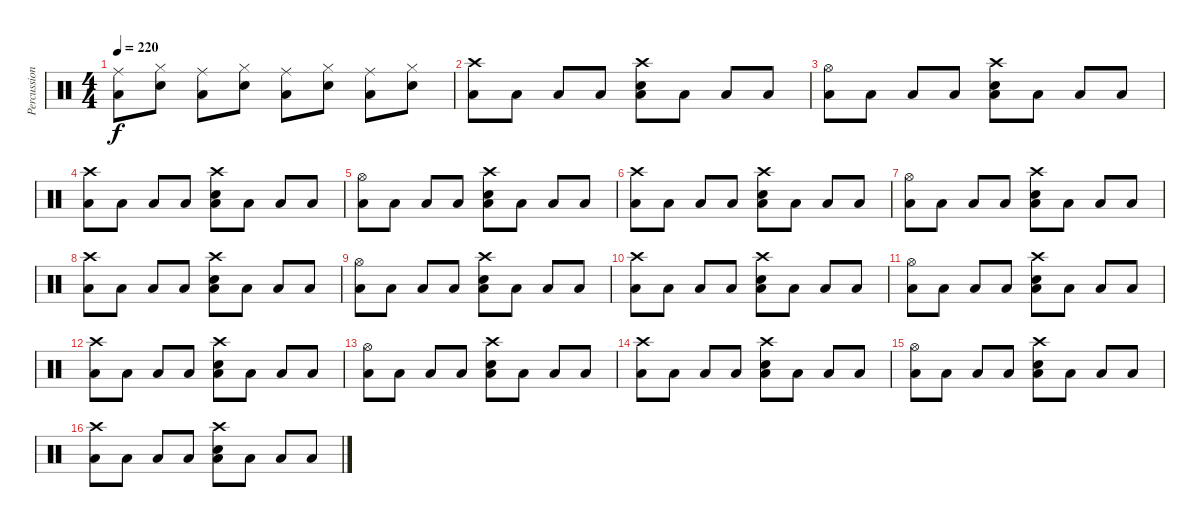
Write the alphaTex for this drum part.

\track ("Percussion" "Percussion") {instrument percussion}
\staff {score}
\articulation defaults
\ts (4 4)
\tempo 220
\clef neutral
\ks c
("Low Floor Tom (hit)" "Ride (middle)").8{dy f} ("Electric Snare (hit)" "Hi-Hat (closed)").8 ("Low Floor Tom (hit)" "Ride (middle)").8 ("Electric Snare (hit)" "Hi-Hat (closed)").8 ("Low Floor Tom (hit)" "Ride (middle)").8 ("Electric Snare (hit)" "Hi-Hat (closed)").8 ("Low Floor Tom (hit)" "Ride (middle)").8 ("Electric Snare (hit)" "Hi-Hat (closed)").8 |
("Crash high (hit)" "Low Floor Tom (hit)").8 "Low Floor Tom (hit)".8 "Low Floor Tom (hit)".8 "Low Floor Tom (hit)".8 ("Crash high (hit)" "Snare (hit) 2" "Low Floor Tom (hit)").8 "Low Floor Tom (hit)".8 "Low Floor Tom (hit)".8 "Low Floor Tom (hit)".8 |
("Hi-Hat (open)" "Low Floor Tom (hit)").8 "Low Floor Tom (hit)".8 "Low Floor Tom (hit)".8 "Low Floor Tom (hit)".8 ("Crash high (hit)" "Snare (hit) 2" "Low Floor Tom (hit)").8 "Low Floor Tom (hit)".8 "Low Floor Tom (hit)".8 "Low Floor Tom (hit)".8 |
("Crash high (hit)" "Low Floor Tom (hit)").8 "Low Floor Tom (hit)".8 "Low Floor Tom (hit)".8 "Low Floor Tom (hit)".8 ("Crash high (hit)" "Snare (hit) 2" "Low Floor Tom (hit)").8 "Low Floor Tom (hit)".8 "Low Floor Tom (hit)".8 "Low Floor Tom (hit)".8 |
("Hi-Hat (open)" "Low Floor Tom (hit)").8 "Low Floor Tom (hit)".8 "Low Floor Tom (hit)".8 "Low Floor Tom (hit)".8 ("Crash high (hit)" "Snare (hit) 2" "Low Floor Tom (hit)").8 "Low Floor Tom (hit)".8 "Low Floor Tom (hit)".8 "Low Floor Tom (hit)".8 |
("Crash high (hit)" "Low Floor Tom (hit)").8 "Low Floor Tom (hit)".8 "Low Floor Tom (hit)".8 "Low Floor Tom (hit)".8 ("Crash high (hit)" "Snare (hit) 2" "Low Floor Tom (hit)").8 "Low Floor Tom (hit)".8 "Low Floor Tom (hit)".8 "Low Floor Tom (hit)".8 |
("Hi-Hat (open)" "Low Floor Tom (hit)").8 "Low Floor Tom (hit)".8 "Low Floor Tom (hit)".8 "Low Floor Tom (hit)".8 ("Crash high (hit)" "Snare (hit) 2" "Low Floor Tom (hit)").8 "Low Floor Tom (hit)".8 "Low Floor Tom (hit)".8 "Low Floor Tom (hit)".8 |
("Crash high (hit)" "Low Floor Tom (hit)").8 "Low Floor Tom (hit)".8 "Low Floor Tom (hit)".8 "Low Floor Tom (hit)".8 ("Crash high (hit)" "Snare (hit) 2" "Low Floor Tom (hit)").8 "Low Floor Tom (hit)".8 "Low Floor Tom (hit)".8 "Low Floor Tom (hit)".8 |
("Hi-Hat (open)" "Low Floor Tom (hit)").8 "Low Floor Tom (hit)".8 "Low Floor Tom (hit)".8 "Low Floor Tom (hit)".8 ("Crash high (hit)" "Snare (hit) 2" "Low Floor Tom (hit)").8 "Low Floor Tom (hit)".8 "Low Floor Tom (hit)".8 "Low Floor Tom (hit)".8 |
("Crash high (hit)" "Low Floor Tom (hit)").8 "Low Floor Tom (hit)".8 "Low Floor Tom (hit)".8 "Low Floor Tom (hit)".8 ("Crash high (hit)" "Snare (hit) 2" "Low Floor Tom (hit)").8 "Low Floor Tom (hit)".8 "Low Floor Tom (hit)".8 "Low Floor Tom (hit)".8 |
("Hi-Hat (open)" "Low Floor Tom (hit)").8 "Low Floor Tom (hit)".8 "Low Floor Tom (hit)".8 "Low Floor Tom (hit)".8 ("Crash high (hit)" "Snare (hit) 2" "Low Floor Tom (hit)").8 "Low Floor Tom (hit)".8 "Low Floor Tom (hit)".8 "Low Floor Tom (hit)".8 |
("Crash high (hit)" "Low Floor Tom (hit)").8 "Low Floor Tom (hit)".8 "Low Floor Tom (hit)".8 "Low Floor Tom (hit)".8 ("Crash high (hit)" "Snare (hit) 2" "Low Floor Tom (hit)").8 "Low Floor Tom (hit)".8 "Low Floor Tom (hit)".8 "Low Floor Tom (hit)".8 |
("Hi-Hat (open)" "Low Floor Tom (hit)").8 "Low Floor Tom (hit)".8 "Low Floor Tom (hit)".8 "Low Floor Tom (hit)".8 ("Crash high (hit)" "Snare (hit) 2" "Low Floor Tom (hit)").8 "Low Floor Tom (hit)".8 "Low Floor Tom (hit)".8 "Low Floor Tom (hit)".8 |
("Crash high (hit)" "Low Floor Tom (hit)").8 "Low Floor Tom (hit)".8 "Low Floor Tom (hit)".8 "Low Floor Tom (hit)".8 ("Crash high (hit)" "Snare (hit) 2" "Low Floor Tom (hit)").8 "Low Floor Tom (hit)".8 "Low Floor Tom (hit)".8 "Low Floor Tom (hit)".8 |
("Hi-Hat (open)" "Low Floor Tom (hit)").8 "Low Floor Tom (hit)".8 "Low Floor Tom (hit)".8 "Low Floor Tom (hit)".8 ("Crash high (hit)" "Snare (hit) 2" "Low Floor Tom (hit)").8 "Low Floor Tom (hit)".8 "Low Floor Tom (hit)".8 "Low Floor Tom (hit)".8 |
("Crash high (hit)" "Low Floor Tom (hit)").8 "Low Floor Tom (hit)".8 "Low Floor Tom (hit)".8 "Low Floor Tom (hit)".8 ("Crash high (hit)" "Snare (hit) 2" "Low Floor Tom (hit)").8 "Low Floor Tom (hit)".8 "Low Floor Tom (hit)".8 "Low Floor Tom (hit)".8
